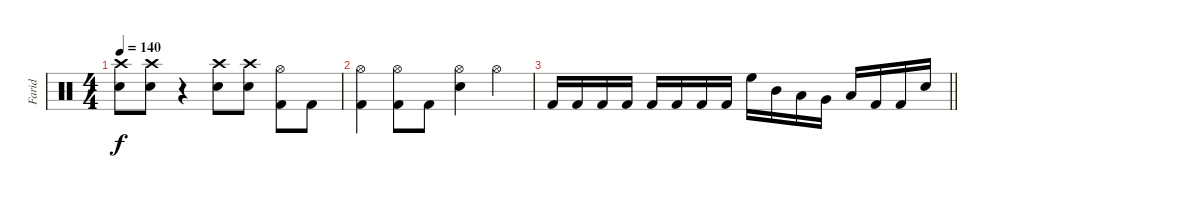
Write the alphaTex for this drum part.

\track ("Farid" "Farid") {instrument percussion}
\staff {score}
\articulation defaults
\ts (4 4)
\tempo 140
\clef neutral
\ks c
("Crash high (hit)" "Snare (hit) 2").8{dy f} ("Crash high (hit)" "Snare (hit) 2").8 r.4 ("Crash high (hit)" "Snare (hit) 2").8 ("Crash high (hit)" "Snare (hit) 2").8 ("Hi-Hat (open)" "Kick (hit) 2").8 "Kick (hit) 2".8 |
("Hi-Hat (open)" "Kick (hit) 2").4 ("Hi-Hat (open)" "Kick (hit) 2").8 "Kick (hit) 2".8 ("Hi-Hat (open)" "Snare (hit) 2").4 "Hi-Hat (open)".4 |
\barLineRight lightlight "Kick (hit) 2".16 "Kick (hit) 2".16 "Kick (hit) 2".16 "Kick (hit) 2".16 "Kick (hit) 2".16 "Kick (hit) 2".16 "Kick (hit) 2".16 "Kick (hit) 2".16 "High Floor Tom (hit)".16 "Mid Tom (hit)".16 "Low Tom (hit)".16 "Very Low Tom (hit)".16 "Low Floor Tom (hit)".16 "Kick (hit) 2".16 "Kick (hit) 2".16 "Snare (hit) 2".16
